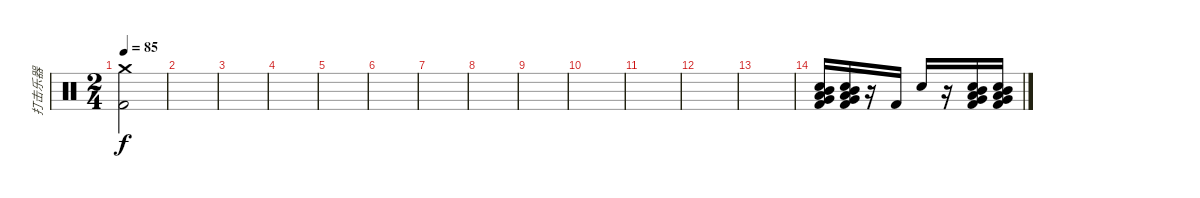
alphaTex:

\track ("打击乐器" "打击乐器") {instrument percussion}
\staff {score}
\articulation defaults
\ts (2 4)
\tempo 85
\clef neutral
\ks c
("Crash medium (hit)" "Kick (hit) 2").2{dy f} |
|
|
|
|
|
|
|
|
|
|
|
|
("Electric Snare (hit)" "Mid Tom (hit)" "Low Tom (hit)" "Very Low Tom (hit)" "Kick (hit) 2").16 ("Electric Snare (hit)" "Mid Tom (hit)" "Low Tom (hit)" "Very Low Tom (hit)" "Kick (hit) 2").16 r.16 "Kick (hit) 2".16 "Electric Snare (hit)".16 r.16 ("Electric Snare (hit)" "Mid Tom (hit)" "Low Tom (hit)" "Very Low Tom (hit)" "Kick (hit) 2").16 ("Electric Snare (hit)" "Mid Tom (hit)" "Low Tom (hit)" "Very Low Tom (hit)" "Kick (hit) 2").16
